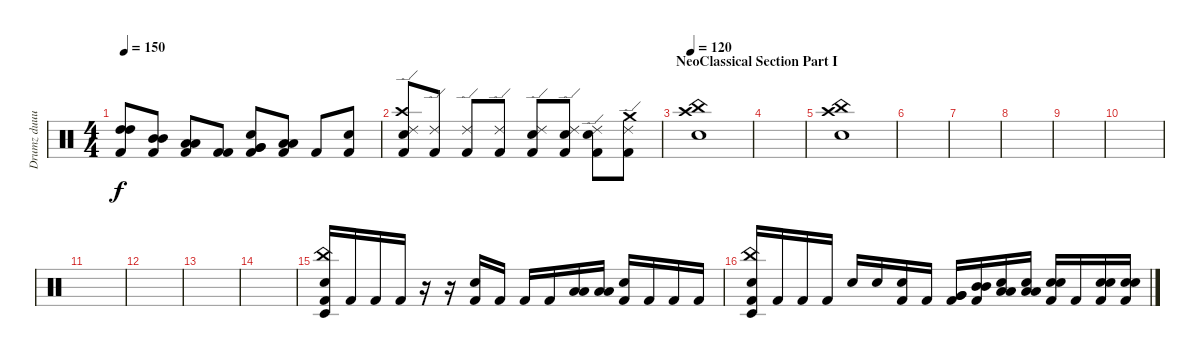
\track ("Drumz duuuuude" "Drumz duuu") {instrument percussion}
\staff {score}
\articulation defaults
\ts (4 4)
\tempo 150
\clef neutral
\ks c
("Kick (hit) 2" "High Tom (hit)" "High Tom (hit)").8{dy f} ("Kick (hit) 2" "Mid Tom (hit)" "Mid Tom (hit)").8 ("Kick (hit) 2" "Low Tom (hit)" "Low Tom (hit)").8 ("Kick (hit) 2" "Kick (hit) 2").8 ("Kick (hit) 2" "Very Low Tom (hit)" "Very Low Tom (hit)" "Electric Snare (hit)").8 ("Kick (hit) 2" "Low Floor Tom (hit)" "Low Floor Tom (hit)").8 "Kick (hit) 2".8 ("Kick (hit) 2" "Electric Snare (hit)").8 |
("Kick (hit) 2" "Crash high (hit)" "Ride (edge) 2" "Snare (hit) 2").8 ("Kick (hit) 2" "Ride (edge) 2").8 ("Kick (hit) 2" "Ride (edge) 2").8 ("Kick (hit) 2" "Ride (edge) 2").8 ("Kick (hit) 2" "Ride (edge) 2" "Electric Snare (hit)").8 ("Kick (hit) 2" "Ride (edge) 2" "Electric Snare (hit)").8 ("Kick (hit) 2" "Ride (edge) 2" "Electric Snare (hit)").8 ("Kick (hit) 2" "Ride (edge) 2" "Crash medium (hit)").8 |
\section ("" "NeoClassical Section Part I")
\tempo 120
("Crash high (hit)" "China (hit)" "Electric Snare (hit)").1 |
|
("Crash high (hit)" "China (hit)" "Electric Snare (hit)").1 |
|
|
|
|
|
|
|
|
|
("China (hit)" "Kick (hit) 2" "Timbale low (hit)" "Snare (hit) 2").16 "Kick (hit) 2".16 "Kick (hit) 2".16 "Kick (hit) 2".16 r.16 r.16 ("Kick (hit) 2" "Snare (hit) 2").16 "Kick (hit) 2".16 "Kick (hit) 2".16 "Kick (hit) 2".16 ("Low Floor Tom (hit)" "Low Floor Tom (hit)").16 ("Low Floor Tom (hit)" "Low Floor Tom (hit)").16 ("Kick (hit) 2" "Snare (hit) 2").16 "Kick (hit) 2".16 "Kick (hit) 2".16 "Kick (hit) 2".16 |
("China (hit)" "Kick (hit) 2" "Timbale low (hit)" "Snare (hit) 2").16 "Kick (hit) 2".16 "Kick (hit) 2".16 "Kick (hit) 2".16 "Electric Snare (hit)".16 "Electric Snare (hit)".16 ("Kick (hit) 2" "Snare (hit) 2").16 "Kick (hit) 2".16 ("Kick (hit) 2" "Very Low Tom (hit)" "Very Low Tom (hit)").16 ("Kick (hit) 2" "Mid Tom (hit)" "Mid Tom (hit)").16 ("Low Tom (hit)" "Low Tom (hit)" "Electric Snare (hit)").16 ("Low Tom (hit)" "Low Tom (hit)" "Electric Snare (hit)").16 ("Kick (hit) 2" "Electric Snare (hit)" "Snare (hit) 2").16 "Kick (hit) 2".16 ("Kick (hit) 2" "Electric Snare (hit)" "Snare (hit) 2").16 ("Kick (hit) 2" "Electric Snare (hit)" "Snare (hit) 2").16
